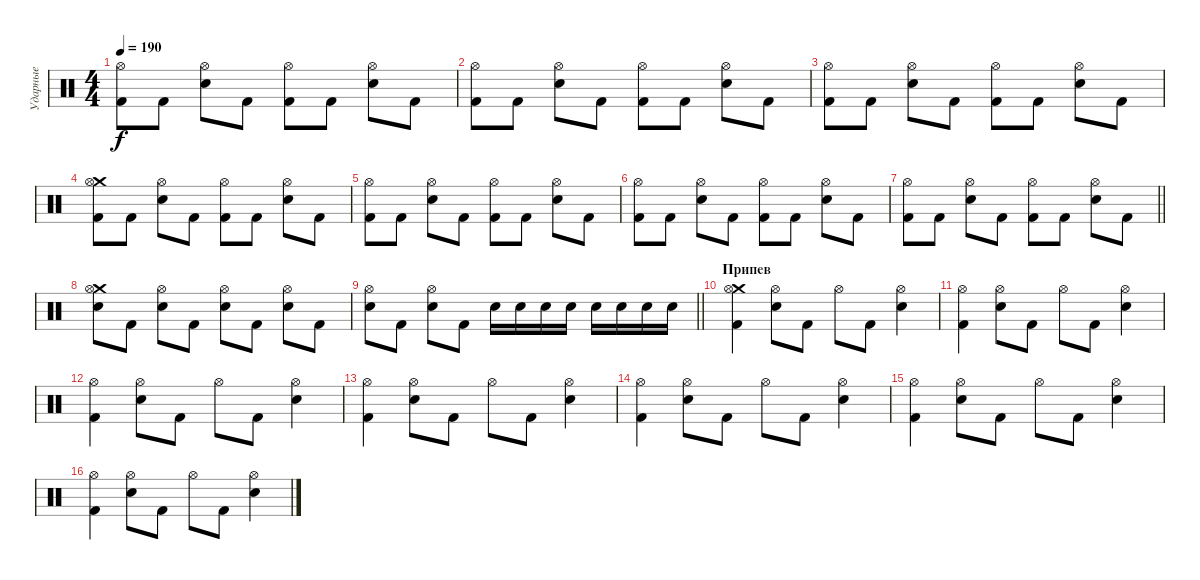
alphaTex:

\track ("Ударные" "Ударные") {instrument percussion}
\staff {score}
\articulation defaults
\ts (4 4)
\tempo 190
\clef neutral
\ks c
("Kick (hit) 2" "Hi-Hat (open)").8{dy f} "Kick (hit) 2".8 ("Electric Snare (hit)" "Hi-Hat (open)").8 "Kick (hit) 2".8 ("Kick (hit) 2" "Hi-Hat (open)").8 "Kick (hit) 2".8 ("Electric Snare (hit)" "Hi-Hat (open)").8 "Kick (hit) 2".8 |
("Kick (hit) 2" "Hi-Hat (open)").8 "Kick (hit) 2".8 ("Electric Snare (hit)" "Hi-Hat (open)").8 "Kick (hit) 2".8 ("Kick (hit) 2" "Hi-Hat (open)").8 "Kick (hit) 2".8 ("Electric Snare (hit)" "Hi-Hat (open)").8 "Kick (hit) 2".8 |
("Kick (hit) 2" "Hi-Hat (open)").8 "Kick (hit) 2".8 ("Electric Snare (hit)" "Hi-Hat (open)").8 "Kick (hit) 2".8 ("Kick (hit) 2" "Hi-Hat (open)").8 "Kick (hit) 2".8 ("Electric Snare (hit)" "Hi-Hat (open)").8 "Kick (hit) 2".8 |
("Crash medium (hit)" "Kick (hit) 2" "Hi-Hat (open)").8 "Kick (hit) 2".8 ("Electric Snare (hit)" "Hi-Hat (open)").8 "Kick (hit) 2".8 ("Kick (hit) 2" "Hi-Hat (open)").8 "Kick (hit) 2".8 ("Electric Snare (hit)" "Hi-Hat (open)").8 "Kick (hit) 2".8 |
("Kick (hit) 2" "Hi-Hat (open)").8 "Kick (hit) 2".8 ("Electric Snare (hit)" "Hi-Hat (open)").8 "Kick (hit) 2".8 ("Kick (hit) 2" "Hi-Hat (open)").8 "Kick (hit) 2".8 ("Electric Snare (hit)" "Hi-Hat (open)").8 "Kick (hit) 2".8 |
("Kick (hit) 2" "Hi-Hat (open)").8 "Kick (hit) 2".8 ("Electric Snare (hit)" "Hi-Hat (open)").8 "Kick (hit) 2".8 ("Kick (hit) 2" "Hi-Hat (open)").8 "Kick (hit) 2".8 ("Electric Snare (hit)" "Hi-Hat (open)").8 "Kick (hit) 2".8 |
\barLineRight lightlight
("Kick (hit) 2" "Hi-Hat (open)").8 "Kick (hit) 2".8 ("Electric Snare (hit)" "Hi-Hat (open)").8 "Kick (hit) 2".8 ("Kick (hit) 2" "Hi-Hat (open)").8 "Kick (hit) 2".8 ("Electric Snare (hit)" "Hi-Hat (open)").8 "Kick (hit) 2".8 |
\section ("" "")
("Crash medium (hit)" "Electric Snare (hit)" "Hi-Hat (open)").8 "Kick (hit) 2".8 ("Electric Snare (hit)" "Hi-Hat (open)").8 "Kick (hit) 2".8 ("Electric Snare (hit)" "Hi-Hat (open)").8 "Kick (hit) 2".8 ("Electric Snare (hit)" "Hi-Hat (open)").8 "Kick (hit) 2".8 |
\barLineRight lightlight
("Electric Snare (hit)" "Hi-Hat (open)").8 "Kick (hit) 2".8 ("Electric Snare (hit)" "Hi-Hat (open)").8 "Kick (hit) 2".8 "Electric Snare (hit)".16 "Electric Snare (hit)".16 "Electric Snare (hit)".16 "Electric Snare (hit)".16 "Electric Snare (hit)".16 "Electric Snare (hit)".16 "Electric Snare (hit)".16 "Electric Snare (hit)".16 |
\section ("" "Припев")
("Crash medium (hit)" "Kick (hit) 2" "Hi-Hat (open)").4 ("Electric Snare (hit)" "Hi-Hat (open)").8 "Kick (hit) 2".8 "Hi-Hat (open)".8 "Kick (hit) 2".8 ("Electric Snare (hit)" "Hi-Hat (open)").4 |
("Kick (hit) 2" "Hi-Hat (open)").4 ("Electric Snare (hit)" "Hi-Hat (open)").8 "Kick (hit) 2".8 "Hi-Hat (open)".8 "Kick (hit) 2".8 ("Electric Snare (hit)" "Hi-Hat (open)").4 |
("Kick (hit) 2" "Hi-Hat (open)").4 ("Electric Snare (hit)" "Hi-Hat (open)").8 "Kick (hit) 2".8 "Hi-Hat (open)".8 "Kick (hit) 2".8 ("Electric Snare (hit)" "Hi-Hat (open)").4 |
("Kick (hit) 2" "Hi-Hat (open)").4 ("Electric Snare (hit)" "Hi-Hat (open)").8 "Kick (hit) 2".8 "Hi-Hat (open)".8 "Kick (hit) 2".8 ("Electric Snare (hit)" "Hi-Hat (open)").4 |
("Kick (hit) 2" "Hi-Hat (open)").4 ("Electric Snare (hit)" "Hi-Hat (open)").8 "Kick (hit) 2".8 "Hi-Hat (open)".8 "Kick (hit) 2".8 ("Electric Snare (hit)" "Hi-Hat (open)").4 |
("Kick (hit) 2" "Hi-Hat (open)").4 ("Electric Snare (hit)" "Hi-Hat (open)").8 "Kick (hit) 2".8 "Hi-Hat (open)".8 "Kick (hit) 2".8 ("Electric Snare (hit)" "Hi-Hat (open)").4 |
("Kick (hit) 2" "Hi-Hat (open)").4 ("Electric Snare (hit)" "Hi-Hat (open)").8 "Kick (hit) 2".8 "Hi-Hat (open)".8 "Kick (hit) 2".8 ("Electric Snare (hit)" "Hi-Hat (open)").4
